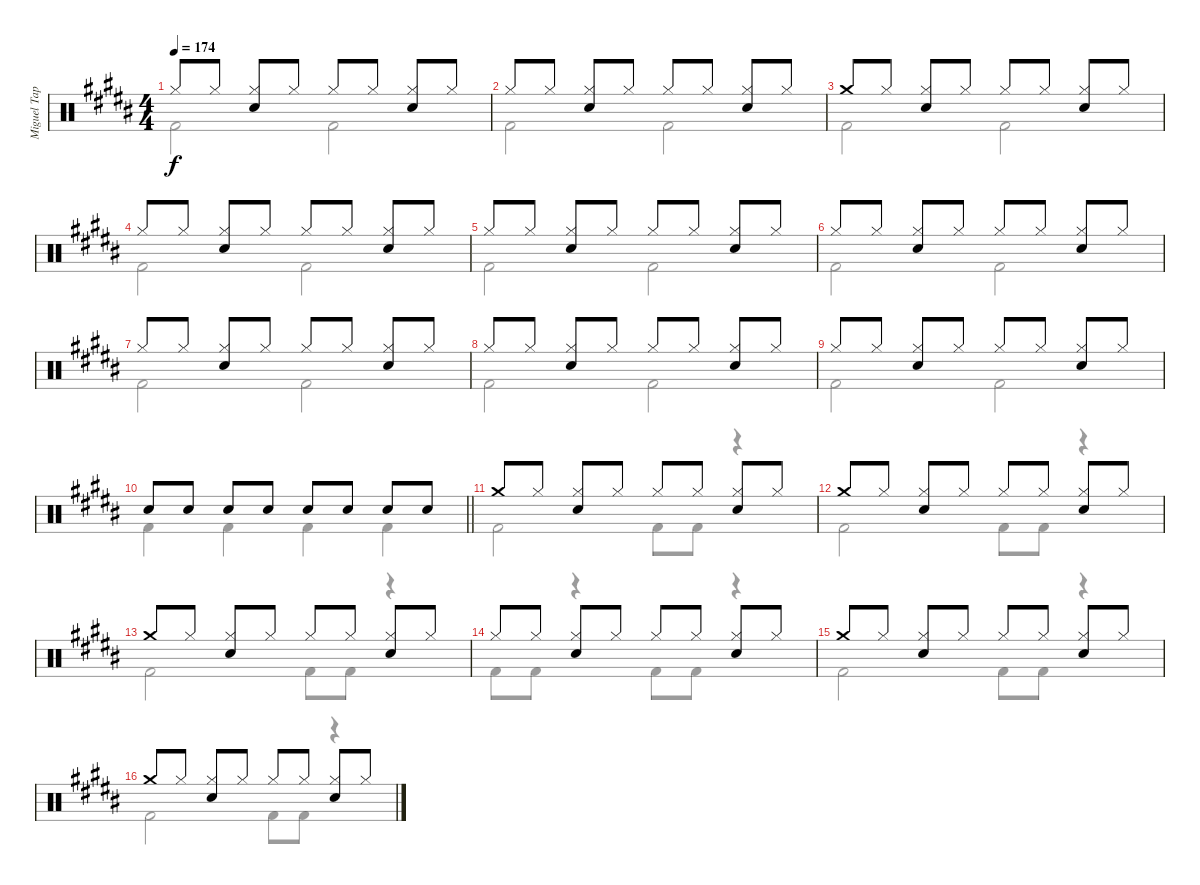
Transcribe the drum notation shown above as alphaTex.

\track ("Miguel Tapia" "Miguel Tap") {instrument percussion}
\staff {score}
\articulation defaults
\voice
\ts (4 4)
\tempo 174
\clef neutral
\ks b "Hi-Hat (closed)".8{dy f} "Hi-Hat (closed)".8
("Hi-Hat (closed)" "Snare (hit) 2").8 "Hi-Hat (closed)".8 "Hi-Hat (closed)".8 "Hi-Hat (closed)".8 ("Hi-Hat (closed)" "Snare (hit) 2").8 "Hi-Hat (closed)".8 |
"Hi-Hat (closed)".8 "Hi-Hat (closed)".8 ("Hi-Hat (closed)" "Snare (hit) 2").8 "Hi-Hat (closed)".8 "Hi-Hat (closed)".8 "Hi-Hat (closed)".8 ("Hi-Hat (closed)" "Snare (hit) 2").8 "Hi-Hat (closed)".8 |
"Crash medium (hit)".8 "Hi-Hat (closed)".8 ("Hi-Hat (closed)" "Snare (hit) 2").8 "Hi-Hat (closed)".8 "Hi-Hat (closed)".8 "Hi-Hat (closed)".8 ("Hi-Hat (closed)" "Snare (hit) 2").8 "Hi-Hat (closed)".8 |
"Hi-Hat (closed)".8 "Hi-Hat (closed)".8 ("Hi-Hat (closed)" "Snare (hit) 2").8 "Hi-Hat (closed)".8 "Hi-Hat (closed)".8 "Hi-Hat (closed)".8 ("Hi-Hat (closed)" "Snare (hit) 2").8 "Hi-Hat (closed)".8 |
"Hi-Hat (closed)".8 "Hi-Hat (closed)".8 ("Hi-Hat (closed)" "Snare (hit) 2").8 "Hi-Hat (closed)".8 "Hi-Hat (closed)".8 "Hi-Hat (closed)".8 ("Hi-Hat (closed)" "Snare (hit) 2").8 "Hi-Hat (closed)".8 |
"Hi-Hat (closed)".8 "Hi-Hat (closed)".8 ("Hi-Hat (closed)" "Snare (hit) 2").8 "Hi-Hat (closed)".8 "Hi-Hat (closed)".8 "Hi-Hat (closed)".8 ("Hi-Hat (closed)" "Snare (hit) 2").8 "Hi-Hat (closed)".8 |
"Hi-Hat (closed)".8 "Hi-Hat (closed)".8 ("Hi-Hat (closed)" "Snare (hit) 2").8 "Hi-Hat (closed)".8 "Hi-Hat (closed)".8 "Hi-Hat (closed)".8 ("Hi-Hat (closed)" "Snare (hit) 2").8 "Hi-Hat (closed)".8 |
"Hi-Hat (closed)".8 "Hi-Hat (closed)".8 ("Hi-Hat (closed)" "Snare (hit) 2").8 "Hi-Hat (closed)".8 "Hi-Hat (closed)".8 "Hi-Hat (closed)".8 ("Hi-Hat (closed)" "Snare (hit) 2").8 "Hi-Hat (closed)".8 |
"Hi-Hat (closed)".8 "Hi-Hat (closed)".8 ("Hi-Hat (closed)" "Snare (hit) 2").8 "Hi-Hat (closed)".8 "Hi-Hat (closed)".8 "Hi-Hat (closed)".8 ("Hi-Hat (closed)" "Snare (hit) 2").8 "Hi-Hat (closed)".8 |
\barLineRight lightlight "Snare (hit) 2".8 "Snare (hit) 2".8 "Snare (hit) 2".8 "Snare (hit) 2".8 "Snare (hit) 2".8 "Snare (hit) 2".8 "Snare (hit) 2".8 "Snare (hit) 2".8
|
"Crash medium (hit)".8 "Hi-Hat (closed)".8 ("Hi-Hat (closed)" "Snare (hit) 2").8 "Hi-Hat (closed)".8 "Hi-Hat (closed)".8 "Hi-Hat (closed)".8 ("Hi-Hat (closed)" "Snare (hit) 2").8 "Hi-Hat (closed)".8 |
"Crash medium (hit)".8 "Hi-Hat (closed)".8 ("Hi-Hat (closed)" "Snare (hit) 2").8 "Hi-Hat (closed)".8 "Hi-Hat (closed)".8 "Hi-Hat (closed)".8 ("Hi-Hat (closed)" "Snare (hit) 2").8 "Hi-Hat (closed)".8 |
"Crash medium (hit)".8 "Hi-Hat (closed)".8 ("Hi-Hat (closed)" "Snare (hit) 2").8 "Hi-Hat (closed)".8 "Hi-Hat (closed)".8 "Hi-Hat (closed)".8 ("Hi-Hat (closed)" "Snare (hit) 2").8 "Hi-Hat (closed)".8 |
"Hi-Hat (closed)".8 "Hi-Hat (closed)".8 ("Hi-Hat (closed)" "Snare (hit) 2").8 "Hi-Hat (closed)".8 "Hi-Hat (closed)".8 "Hi-Hat (closed)".8 ("Hi-Hat (closed)" "Snare (hit) 2").8 "Hi-Hat (closed)".8 |
"Crash medium (hit)".8 "Hi-Hat (closed)".8 ("Hi-Hat (closed)" "Snare (hit) 2").8 "Hi-Hat (closed)".8 "Hi-Hat (closed)".8 "Hi-Hat (closed)".8 ("Hi-Hat (closed)" "Snare (hit) 2").8 "Hi-Hat (closed)".8 |
"Crash medium (hit)".8 "Hi-Hat (closed)".8 ("Hi-Hat (closed)" "Snare (hit) 2").8 "Hi-Hat (closed)".8 "Hi-Hat (closed)".8 "Hi-Hat (closed)".8 ("Hi-Hat (closed)" "Snare (hit) 2").8 "Hi-Hat (closed)".8
\voice
\clef neutral
\ottava regular
\simile none
\ks b "Kick (hit) 2".2{dy f} "Kick (hit) 2".2
|
"Kick (hit) 2".2 "Kick (hit) 2".2 |
"Kick (hit) 2".2 "Kick (hit) 2".2 |
"Kick (hit) 2".2 "Kick (hit) 2".2 |
"Kick (hit) 2".2 "Kick (hit) 2".2 |
"Kick (hit) 2".2 "Kick (hit) 2".2 |
"Kick (hit) 2".2 "Kick (hit) 2".2 |
"Kick (hit) 2".2 "Kick (hit) 2".2 |
"Kick (hit) 2".2 "Kick (hit) 2".2 |
\barLineRight lightlight "Kick (hit) 2".4 "Kick (hit) 2".4 "Kick (hit) 2".4 "Kick (hit) 2".4
|
"Kick (hit) 2".2 "Kick (hit) 2".8 "Kick (hit) 2".8 r.4 |
"Kick (hit) 2".2 "Kick (hit) 2".8 "Kick (hit) 2".8 r.4 |
"Kick (hit) 2".2 "Kick (hit) 2".8 "Kick (hit) 2".8 r.4 |
"Kick (hit) 2".8 "Kick (hit) 2".8 r.4 "Kick (hit) 2".8 "Kick (hit) 2".8 r.4 |
"Kick (hit) 2".2 "Kick (hit) 2".8 "Kick (hit) 2".8 r.4 |
"Kick (hit) 2".2 "Kick (hit) 2".8 "Kick (hit) 2".8 r.4
